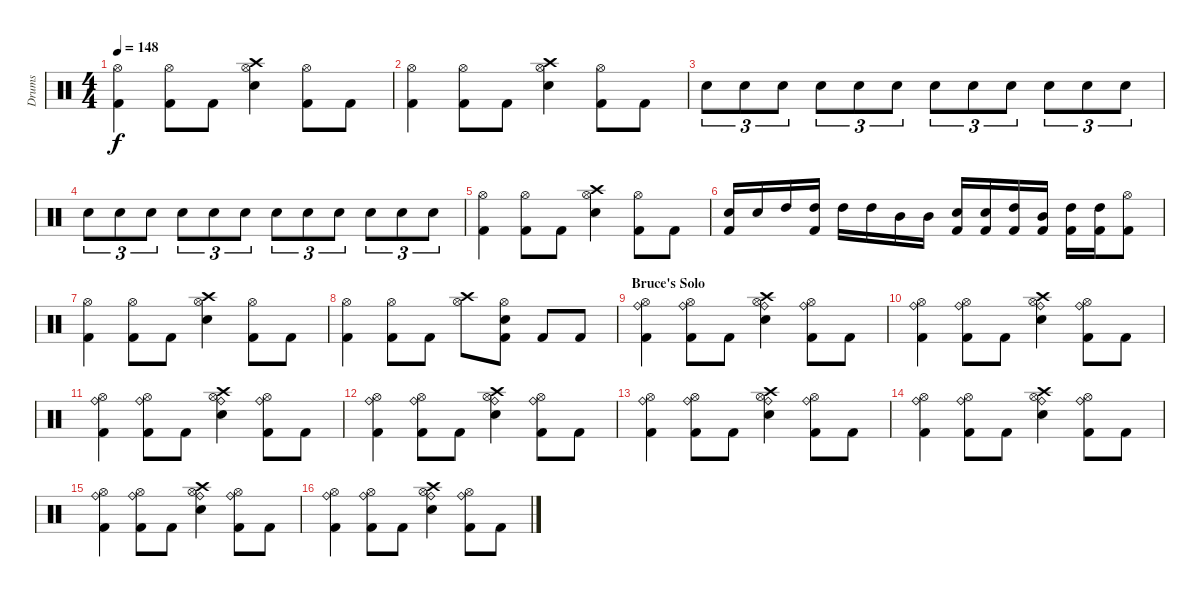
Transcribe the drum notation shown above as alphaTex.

\track ("Drums" "Drums") {instrument percussion}
\staff {score}
\articulation defaults
\ts (4 4)
\tempo 148
\clef neutral
\ks c
("Hi-Hat (open)" "Kick (hit) 2").4{dy f} ("Hi-Hat (open)" "Kick (hit) 2").8 "Kick (hit) 2".8 ("Crash high (hit)" "Hi-Hat (open)" "Snare (hit) 2").4 ("Hi-Hat (open)" "Kick (hit) 2").8 "Kick (hit) 2".8 |
("Hi-Hat (open)" "Kick (hit) 2").4 ("Hi-Hat (open)" "Kick (hit) 2").8 "Kick (hit) 2".8 ("Crash high (hit)" "Hi-Hat (open)" "Snare (hit) 2").4 ("Hi-Hat (open)" "Kick (hit) 2").8 "Kick (hit) 2".8 |
"Electric Snare (hit)".8{tu (3 2)} "Electric Snare (hit)".8{tu (3 2)} "Electric Snare (hit)".8{tu (3 2)} "Electric Snare (hit)".8{tu (3 2)} "Electric Snare (hit)".8{tu (3 2)} "Electric Snare (hit)".8{tu (3 2)} "Electric Snare (hit)".8{tu (3 2)} "Electric Snare (hit)".8{tu (3 2)} "Electric Snare (hit)".8{tu (3 2)} "Electric Snare (hit)".8{tu (3 2)} "Electric Snare (hit)".8{tu (3 2)} "Electric Snare (hit)".8{tu (3 2)} |
"Electric Snare (hit)".8{tu (3 2)} "Electric Snare (hit)".8{tu (3 2)} "Electric Snare (hit)".8{tu (3 2)} "Electric Snare (hit)".8{tu (3 2)} "Electric Snare (hit)".8{tu (3 2)} "Electric Snare (hit)".8{tu (3 2)} "Electric Snare (hit)".8{tu (3 2)} "Electric Snare (hit)".8{tu (3 2)} "Electric Snare (hit)".8{tu (3 2)} "Electric Snare (hit)".8{tu (3 2)} "Electric Snare (hit)".8{tu (3 2)} "Electric Snare (hit)".8{tu (3 2)} |
("Hi-Hat (open)" "Kick (hit) 2").4 ("Hi-Hat (open)" "Kick (hit) 2").8 "Kick (hit) 2".8 ("Crash high (hit)" "Hi-Hat (open)" "Snare (hit) 2").4 ("Hi-Hat (open)" "Kick (hit) 2").8 "Kick (hit) 2".8 |
("Snare (hit) 2" "Kick (hit) 2").16 "Snare (hit) 2".16 "High Tom (hit)".16 ("High Tom (hit)" "Kick (hit) 2").16 "High Tom (hit)".16 "High Tom (hit)".16 "Mid Tom (hit)".16 "Mid Tom (hit)".16 ("Snare (hit) 2" "Kick (hit) 2").16 ("Snare (hit) 2" "Kick (hit) 2").16 ("High Tom (hit)" "Kick (hit) 2").16 ("Mid Tom (hit)" "Kick (hit) 2").16 ("High Tom (hit)" "Kick (hit) 2").16 ("High Tom (hit)" "Kick (hit) 2").16 ("Hi-Hat (open)" "Kick (hit) 2").8 |
("Hi-Hat (open)" "Kick (hit) 2").4 ("Hi-Hat (open)" "Kick (hit) 2").8 "Kick (hit) 2".8 ("Crash high (hit)" "Hi-Hat (open)" "Snare (hit) 2").4 ("Hi-Hat (open)" "Kick (hit) 2").8 "Kick (hit) 2".8 |
("Hi-Hat (open)" "Kick (hit) 2").4 ("Hi-Hat (open)" "Kick (hit) 2").8 "Kick (hit) 2".8 ("Crash high (hit)" "Hi-Hat (open)").8 ("Hi-Hat (open)" "Snare (hit) 2" "Kick (hit) 2").8 "Kick (hit) 2".8 "Kick (hit) 2".8 |
\section ("" "Bruce's Solo")
("Ride (bell)" "Hi-Hat (open)" "Kick (hit) 2").4 ("Ride (bell)" "Hi-Hat (open)" "Kick (hit) 2").8 "Kick (hit) 2".8 ("Ride (bell)" "Crash high (hit)" "Hi-Hat (open)" "Snare (hit) 2").4 ("Ride (bell)" "Hi-Hat (open)" "Kick (hit) 2").8 "Kick (hit) 2".8 |
("Ride (bell)" "Hi-Hat (open)" "Kick (hit) 2").4 ("Ride (bell)" "Hi-Hat (open)" "Kick (hit) 2").8 "Kick (hit) 2".8 ("Ride (bell)" "Crash high (hit)" "Hi-Hat (open)" "Snare (hit) 2").4 ("Ride (bell)" "Hi-Hat (open)" "Kick (hit) 2").8 "Kick (hit) 2".8 |
("Ride (bell)" "Hi-Hat (open)" "Kick (hit) 2").4 ("Ride (bell)" "Hi-Hat (open)" "Kick (hit) 2").8 "Kick (hit) 2".8 ("Ride (bell)" "Crash high (hit)" "Hi-Hat (open)" "Snare (hit) 2").4 ("Ride (bell)" "Hi-Hat (open)" "Kick (hit) 2").8 "Kick (hit) 2".8 |
("Ride (bell)" "Hi-Hat (open)" "Kick (hit) 2").4 ("Ride (bell)" "Hi-Hat (open)" "Kick (hit) 2").8 "Kick (hit) 2".8 ("Ride (bell)" "Crash high (hit)" "Hi-Hat (open)" "Snare (hit) 2").4 ("Ride (bell)" "Hi-Hat (open)" "Kick (hit) 2").8 "Kick (hit) 2".8 |
("Ride (bell)" "Hi-Hat (open)" "Kick (hit) 2").4 ("Ride (bell)" "Hi-Hat (open)" "Kick (hit) 2").8 "Kick (hit) 2".8 ("Ride (bell)" "Crash high (hit)" "Hi-Hat (open)" "Snare (hit) 2").4 ("Ride (bell)" "Hi-Hat (open)" "Kick (hit) 2").8 "Kick (hit) 2".8 |
("Ride (bell)" "Hi-Hat (open)" "Kick (hit) 2").4 ("Ride (bell)" "Hi-Hat (open)" "Kick (hit) 2").8 "Kick (hit) 2".8 ("Ride (bell)" "Crash high (hit)" "Hi-Hat (open)" "Snare (hit) 2").4 ("Ride (bell)" "Hi-Hat (open)" "Kick (hit) 2").8 "Kick (hit) 2".8 |
("Ride (bell)" "Hi-Hat (open)" "Kick (hit) 2").4 ("Ride (bell)" "Hi-Hat (open)" "Kick (hit) 2").8 "Kick (hit) 2".8 ("Ride (bell)" "Crash high (hit)" "Hi-Hat (open)" "Snare (hit) 2").4 ("Ride (bell)" "Hi-Hat (open)" "Kick (hit) 2").8 "Kick (hit) 2".8 |
("Ride (bell)" "Hi-Hat (open)" "Kick (hit) 2").4 ("Ride (bell)" "Hi-Hat (open)" "Kick (hit) 2").8 "Kick (hit) 2".8 ("Ride (bell)" "Crash high (hit)" "Hi-Hat (open)" "Snare (hit) 2").4 ("Ride (bell)" "Hi-Hat (open)" "Kick (hit) 2").8 "Kick (hit) 2".8
